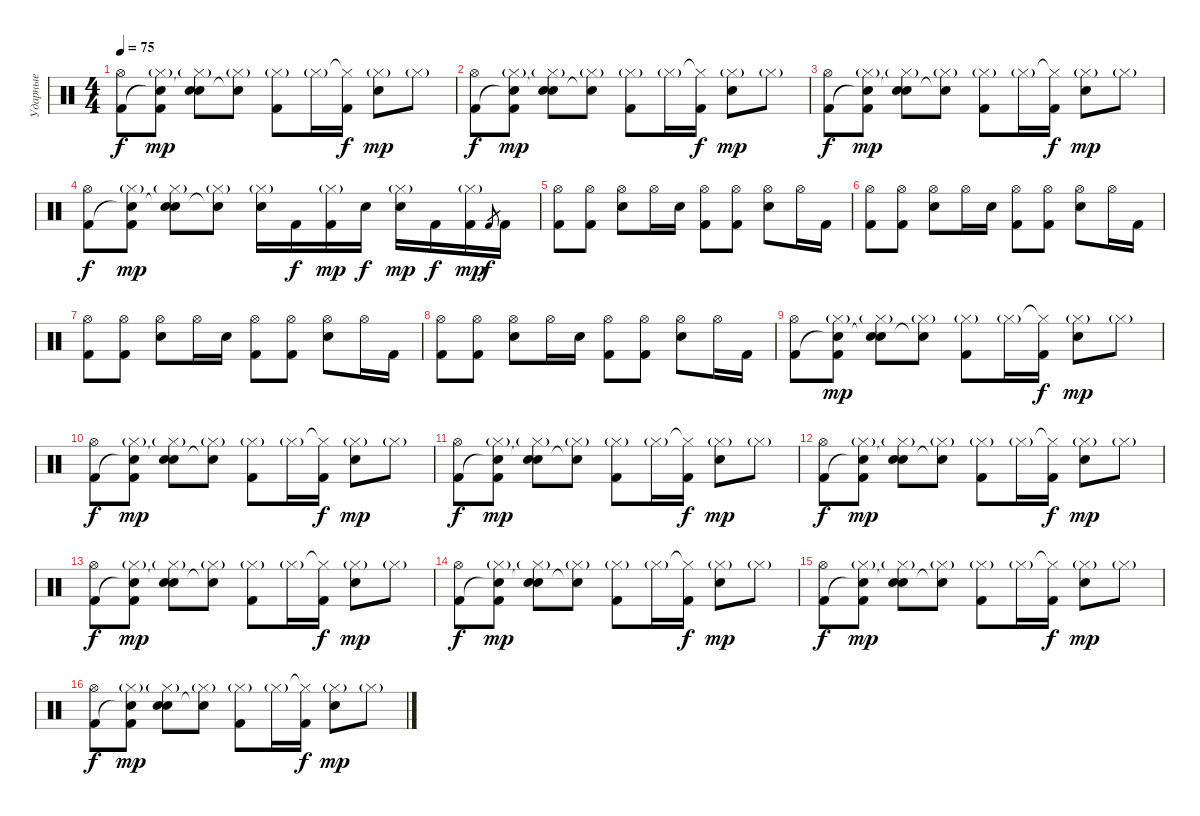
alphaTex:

\track ("Ударные" "Ударные") {instrument percussion}
\staff {score}
\articulation defaults
\ts (4 4)
\tempo 75
\clef neutral
\ks c
("Hi-Hat (open)" "Kick (hit) 2").8{dy f} ("Hi-Hat (closed)"{g} "Snare (hit)"{t} "Kick (hit) 2").8{dy mp} ("Hi-Hat (closed)"{g} "Snare (hit)"{t} "Electric Snare (hit)").8 ("Hi-Hat (closed)"{g} "Snare (hit)"{t}).8 ("Hi-Hat (closed)"{g} "Kick (hit) 2").8 "Hi-Hat (closed)"{g}.16 ("Hi-Hat (closed)"{t} "Kick (hit) 2").16{dy f} ("Hi-Hat (closed)"{g} "Electric Snare (hit)").8{dy mp} "Hi-Hat (closed)"{g}.8 |
("Hi-Hat (open)" "Kick (hit) 2").8{dy f} ("Hi-Hat (closed)"{g} "Snare (hit)"{t} "Kick (hit) 2").8{dy mp} ("Hi-Hat (closed)"{g} "Snare (hit)"{t} "Electric Snare (hit)").8 ("Hi-Hat (closed)"{g} "Snare (hit)"{t}).8 ("Hi-Hat (closed)"{g} "Kick (hit) 2").8 "Hi-Hat (closed)"{g}.16 ("Hi-Hat (closed)"{t} "Kick (hit) 2").16{dy f} ("Hi-Hat (closed)"{g} "Electric Snare (hit)").8{dy mp} "Hi-Hat (closed)"{g}.8 |
("Hi-Hat (open)" "Kick (hit) 2").8{dy f} ("Hi-Hat (closed)"{g} "Snare (hit)"{t} "Kick (hit) 2").8{dy mp} ("Hi-Hat (closed)"{g} "Snare (hit)"{t} "Electric Snare (hit)").8 ("Hi-Hat (closed)"{g} "Snare (hit)"{t}).8 ("Hi-Hat (closed)"{g} "Kick (hit) 2").8 "Hi-Hat (closed)"{g}.16 ("Hi-Hat (closed)"{t} "Kick (hit) 2").16{dy f} ("Hi-Hat (closed)"{g} "Electric Snare (hit)").8{dy mp} "Hi-Hat (closed)"{g}.8 |
("Hi-Hat (open)" "Kick (hit) 2").8{dy f} ("Hi-Hat (closed)"{g} "Snare (hit)"{t} "Kick (hit) 2").8{dy mp} ("Hi-Hat (closed)"{g} "Snare (hit)"{t} "Electric Snare (hit)").8 ("Hi-Hat (closed)"{g} "Snare (hit)"{t}).8 ("Hi-Hat (closed)"{g} "Electric Snare (hit)").16 "Kick (hit) 2".16{dy f} ("Hi-Hat (closed)"{g} "Kick (hit) 2").16{dy mp} "Electric Snare (hit)".16{dy f} ("Hi-Hat (closed)"{g} "Electric Snare (hit)").16{dy mp} "Kick (hit) 2".16{dy f} ("Hi-Hat (closed)"{g} "Kick (hit) 2").16{dy mp} "Kick (hit) 2".8{gr dy f} "Kick (hit) 2".16 |
("Hi-Hat (open)" "Kick (hit) 2").8 ("Hi-Hat (open)" "Kick (hit) 2").8 ("Hi-Hat (open)" "Electric Snare (hit)").8 "Hi-Hat (open)".16 "Electric Snare (hit)".16 ("Hi-Hat (open)" "Kick (hit) 2").8 ("Hi-Hat (open)" "Kick (hit) 2").8 ("Hi-Hat (open)" "Electric Snare (hit)").8 "Hi-Hat (open)".16 "Kick (hit) 2".16 |
("Hi-Hat (open)" "Kick (hit) 2").8 ("Hi-Hat (open)" "Kick (hit) 2").8 ("Hi-Hat (open)" "Electric Snare (hit)").8 "Hi-Hat (open)".16 "Electric Snare (hit)".16 ("Hi-Hat (open)" "Kick (hit) 2").8 ("Hi-Hat (open)" "Kick (hit) 2").8 ("Hi-Hat (open)" "Electric Snare (hit)").8 "Hi-Hat (open)".16 "Kick (hit) 2".16 |
("Hi-Hat (open)" "Kick (hit) 2").8 ("Hi-Hat (open)" "Kick (hit) 2").8 ("Hi-Hat (open)" "Electric Snare (hit)").8 "Hi-Hat (open)".16 "Electric Snare (hit)".16 ("Hi-Hat (open)" "Kick (hit) 2").8 ("Hi-Hat (open)" "Kick (hit) 2").8 ("Hi-Hat (open)" "Electric Snare (hit)").8 "Hi-Hat (open)".16 "Kick (hit) 2".16 |
("Hi-Hat (open)" "Kick (hit) 2").8 ("Hi-Hat (open)" "Kick (hit) 2").8 ("Hi-Hat (open)" "Electric Snare (hit)").8 "Hi-Hat (open)".16 "Electric Snare (hit)".16 ("Hi-Hat (open)" "Kick (hit) 2").8 ("Hi-Hat (open)" "Kick (hit) 2").8 ("Hi-Hat (open)" "Electric Snare (hit)").8 "Hi-Hat (open)".16 "Kick (hit) 2".16 |
("Hi-Hat (open)" "Kick (hit) 2").8 ("Hi-Hat (closed)"{g} "Snare (hit)"{t} "Kick (hit) 2").8{dy mp} ("Hi-Hat (closed)"{g} "Snare (hit)"{t} "Electric Snare (hit)").8 ("Hi-Hat (closed)"{g} "Snare (hit)"{t}).8 ("Hi-Hat (closed)"{g} "Kick (hit) 2").8 "Hi-Hat (closed)"{g}.16 ("Hi-Hat (closed)"{t} "Kick (hit) 2").16{dy f} ("Hi-Hat (closed)"{g} "Electric Snare (hit)").8{dy mp} "Hi-Hat (closed)"{g}.8 |
("Hi-Hat (open)" "Kick (hit) 2").8{dy f} ("Hi-Hat (closed)"{g} "Snare (hit)"{t} "Kick (hit) 2").8{dy mp} ("Hi-Hat (closed)"{g} "Snare (hit)"{t} "Electric Snare (hit)").8 ("Hi-Hat (closed)"{g} "Snare (hit)"{t}).8 ("Hi-Hat (closed)"{g} "Kick (hit) 2").8 "Hi-Hat (closed)"{g}.16 ("Hi-Hat (closed)"{t} "Kick (hit) 2").16{dy f} ("Hi-Hat (closed)"{g} "Electric Snare (hit)").8{dy mp} "Hi-Hat (closed)"{g}.8 |
("Hi-Hat (open)" "Kick (hit) 2").8{dy f} ("Hi-Hat (closed)"{g} "Snare (hit)"{t} "Kick (hit) 2").8{dy mp} ("Hi-Hat (closed)"{g} "Snare (hit)"{t} "Electric Snare (hit)").8 ("Hi-Hat (closed)"{g} "Snare (hit)"{t}).8 ("Hi-Hat (closed)"{g} "Kick (hit) 2").8 "Hi-Hat (closed)"{g}.16 ("Hi-Hat (closed)"{t} "Kick (hit) 2").16{dy f} ("Hi-Hat (closed)"{g} "Electric Snare (hit)").8{dy mp} "Hi-Hat (closed)"{g}.8 |
("Hi-Hat (open)" "Kick (hit) 2").8{dy f} ("Hi-Hat (closed)"{g} "Snare (hit)"{t} "Kick (hit) 2").8{dy mp} ("Hi-Hat (closed)"{g} "Snare (hit)"{t} "Electric Snare (hit)").8 ("Hi-Hat (closed)"{g} "Snare (hit)"{t}).8 ("Hi-Hat (closed)"{g} "Kick (hit) 2").8 "Hi-Hat (closed)"{g}.16 ("Hi-Hat (closed)"{t} "Kick (hit) 2").16{dy f} ("Hi-Hat (closed)"{g} "Electric Snare (hit)").8{dy mp} "Hi-Hat (closed)"{g}.8 |
("Hi-Hat (open)" "Kick (hit) 2").8{dy f} ("Hi-Hat (closed)"{g} "Snare (hit)"{t} "Kick (hit) 2").8{dy mp} ("Hi-Hat (closed)"{g} "Snare (hit)"{t} "Electric Snare (hit)").8 ("Hi-Hat (closed)"{g} "Snare (hit)"{t}).8 ("Hi-Hat (closed)"{g} "Kick (hit) 2").8 "Hi-Hat (closed)"{g}.16 ("Hi-Hat (closed)"{t} "Kick (hit) 2").16{dy f} ("Hi-Hat (closed)"{g} "Electric Snare (hit)").8{dy mp} "Hi-Hat (closed)"{g}.8 |
("Hi-Hat (open)" "Kick (hit) 2").8{dy f} ("Hi-Hat (closed)"{g} "Snare (hit)"{t} "Kick (hit) 2").8{dy mp} ("Hi-Hat (closed)"{g} "Snare (hit)"{t} "Electric Snare (hit)").8 ("Hi-Hat (closed)"{g} "Snare (hit)"{t}).8 ("Hi-Hat (closed)"{g} "Kick (hit) 2").8 "Hi-Hat (closed)"{g}.16 ("Hi-Hat (closed)"{t} "Kick (hit) 2").16{dy f} ("Hi-Hat (closed)"{g} "Electric Snare (hit)").8{dy mp} "Hi-Hat (closed)"{g}.8 |
("Hi-Hat (open)" "Kick (hit) 2").8{dy f} ("Hi-Hat (closed)"{g} "Snare (hit)"{t} "Kick (hit) 2").8{dy mp} ("Hi-Hat (closed)"{g} "Snare (hit)"{t} "Electric Snare (hit)").8 ("Hi-Hat (closed)"{g} "Snare (hit)"{t}).8 ("Hi-Hat (closed)"{g} "Kick (hit) 2").8 "Hi-Hat (closed)"{g}.16 ("Hi-Hat (closed)"{t} "Kick (hit) 2").16{dy f} ("Hi-Hat (closed)"{g} "Electric Snare (hit)").8{dy mp} "Hi-Hat (closed)"{g}.8 |
("Hi-Hat (open)" "Kick (hit) 2").8{dy f} ("Hi-Hat (closed)"{g} "Snare (hit)"{t} "Kick (hit) 2").8{dy mp} ("Hi-Hat (closed)"{g} "Snare (hit)"{t} "Electric Snare (hit)").8 ("Hi-Hat (closed)"{g} "Snare (hit)"{t}).8 ("Hi-Hat (closed)"{g} "Kick (hit) 2").8 "Hi-Hat (closed)"{g}.16 ("Hi-Hat (closed)"{t} "Kick (hit) 2").16{dy f} ("Hi-Hat (closed)"{g} "Electric Snare (hit)").8{dy mp} "Hi-Hat (closed)"{g}.8
